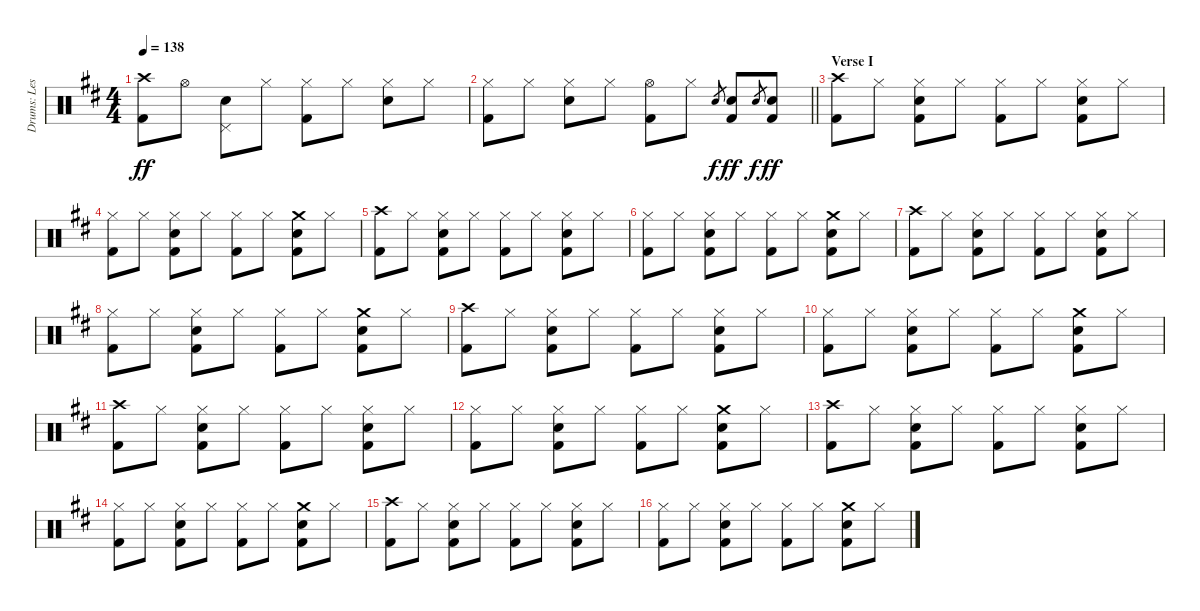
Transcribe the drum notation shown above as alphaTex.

\track ("Drums: Les" "Drums: Les") {instrument percussion}
\staff {score}
\articulation defaults
\ts (4 4)
\tempo 138
\clef neutral
\ks d
("Crash high (hit)" "Kick (hit) 2").8{dy ff} "Hi-Hat (open)".8 ("Pedal Hi-Hat (hit)" "Snare (hit) 2").8 "Hi-Hat (closed)".8 ("Hi-Hat (closed)" "Kick (hit) 2").8 "Hi-Hat (closed)".8 ("Hi-Hat (closed)" "Snare (hit) 2").8 "Hi-Hat (closed)".8 |
\barLineRight lightlight
("Hi-Hat (closed)" "Kick (hit) 2").8 "Hi-Hat (closed)".8 ("Hi-Hat (closed)" "Snare (hit) 2").8 "Hi-Hat (closed)".8 ("Hi-Hat (open)" "Kick (hit) 2").8 "Hi-Hat (closed)".8 "Snare (hit) 2".8{gr dy f} ("Snare (hit) 2" "Kick (hit) 2").8{dy ff} "Snare (hit) 2".8{gr dy f} ("Snare (hit) 2" "Kick (hit) 2").8{dy ff} |
\section ("" "Verse I")
("Crash high (hit)" "Kick (hit) 2").8 "Hi-Hat (closed)".8 ("Hi-Hat (closed)" "Snare (hit) 2" "Kick (hit) 2").8 "Hi-Hat (closed)".8 ("Hi-Hat (closed)" "Kick (hit) 2").8 "Hi-Hat (closed)".8 ("Hi-Hat (closed)" "Snare (hit) 2" "Kick (hit) 2").8 "Hi-Hat (closed)".8 |
("Hi-Hat (closed)" "Kick (hit) 2").8 "Hi-Hat (closed)".8 ("Hi-Hat (closed)" "Snare (hit) 2" "Kick (hit) 2").8 "Hi-Hat (closed)".8 ("Hi-Hat (closed)" "Kick (hit) 2").8 "Hi-Hat (closed)".8 ("Crash medium (hit)" "Snare (hit) 2" "Kick (hit) 2").8 "Hi-Hat (closed)".8 |
("Crash high (hit)" "Kick (hit) 2").8 "Hi-Hat (closed)".8 ("Hi-Hat (closed)" "Snare (hit) 2" "Kick (hit) 2").8 "Hi-Hat (closed)".8 ("Hi-Hat (closed)" "Kick (hit) 2").8 "Hi-Hat (closed)".8 ("Hi-Hat (closed)" "Snare (hit) 2" "Kick (hit) 2").8 "Hi-Hat (closed)".8 |
("Hi-Hat (closed)" "Kick (hit) 2").8 "Hi-Hat (closed)".8 ("Hi-Hat (closed)" "Snare (hit) 2" "Kick (hit) 2").8 "Hi-Hat (closed)".8 ("Hi-Hat (closed)" "Kick (hit) 2").8 "Hi-Hat (closed)".8 ("Crash medium (hit)" "Snare (hit) 2" "Kick (hit) 2").8 "Hi-Hat (closed)".8 |
("Crash high (hit)" "Kick (hit) 2").8 "Hi-Hat (closed)".8 ("Hi-Hat (closed)" "Snare (hit) 2" "Kick (hit) 2").8 "Hi-Hat (closed)".8 ("Hi-Hat (closed)" "Kick (hit) 2").8 "Hi-Hat (closed)".8 ("Hi-Hat (closed)" "Snare (hit) 2" "Kick (hit) 2").8 "Hi-Hat (closed)".8 |
("Hi-Hat (closed)" "Kick (hit) 2").8 "Hi-Hat (closed)".8 ("Hi-Hat (closed)" "Snare (hit) 2" "Kick (hit) 2").8 "Hi-Hat (closed)".8 ("Hi-Hat (closed)" "Kick (hit) 2").8 "Hi-Hat (closed)".8 ("Crash medium (hit)" "Snare (hit) 2" "Kick (hit) 2").8 "Hi-Hat (closed)".8 |
("Crash high (hit)" "Kick (hit) 2").8 "Hi-Hat (closed)".8 ("Hi-Hat (closed)" "Snare (hit) 2" "Kick (hit) 2").8 "Hi-Hat (closed)".8 ("Hi-Hat (closed)" "Kick (hit) 2").8 "Hi-Hat (closed)".8 ("Hi-Hat (closed)" "Snare (hit) 2" "Kick (hit) 2").8 "Hi-Hat (closed)".8 |
("Hi-Hat (closed)" "Kick (hit) 2").8 "Hi-Hat (closed)".8 ("Hi-Hat (closed)" "Snare (hit) 2" "Kick (hit) 2").8 "Hi-Hat (closed)".8 ("Hi-Hat (closed)" "Kick (hit) 2").8 "Hi-Hat (closed)".8 ("Crash medium (hit)" "Snare (hit) 2" "Kick (hit) 2").8 "Hi-Hat (closed)".8 |
("Crash high (hit)" "Kick (hit) 2").8 "Hi-Hat (closed)".8 ("Hi-Hat (closed)" "Snare (hit) 2" "Kick (hit) 2").8 "Hi-Hat (closed)".8 ("Hi-Hat (closed)" "Kick (hit) 2").8 "Hi-Hat (closed)".8 ("Hi-Hat (closed)" "Snare (hit) 2" "Kick (hit) 2").8 "Hi-Hat (closed)".8 |
("Hi-Hat (closed)" "Kick (hit) 2").8 "Hi-Hat (closed)".8 ("Hi-Hat (closed)" "Snare (hit) 2" "Kick (hit) 2").8 "Hi-Hat (closed)".8 ("Hi-Hat (closed)" "Kick (hit) 2").8 "Hi-Hat (closed)".8 ("Crash medium (hit)" "Snare (hit) 2" "Kick (hit) 2").8 "Hi-Hat (closed)".8 |
("Crash high (hit)" "Kick (hit) 2").8 "Hi-Hat (closed)".8 ("Hi-Hat (closed)" "Snare (hit) 2" "Kick (hit) 2").8 "Hi-Hat (closed)".8 ("Hi-Hat (closed)" "Kick (hit) 2").8 "Hi-Hat (closed)".8 ("Hi-Hat (closed)" "Snare (hit) 2" "Kick (hit) 2").8 "Hi-Hat (closed)".8 |
("Hi-Hat (closed)" "Kick (hit) 2").8 "Hi-Hat (closed)".8 ("Hi-Hat (closed)" "Snare (hit) 2" "Kick (hit) 2").8 "Hi-Hat (closed)".8 ("Hi-Hat (closed)" "Kick (hit) 2").8 "Hi-Hat (closed)".8 ("Crash medium (hit)" "Snare (hit) 2" "Kick (hit) 2").8 "Hi-Hat (closed)".8 |
("Crash high (hit)" "Kick (hit) 2").8 "Hi-Hat (closed)".8 ("Hi-Hat (closed)" "Snare (hit) 2" "Kick (hit) 2").8 "Hi-Hat (closed)".8 ("Hi-Hat (closed)" "Kick (hit) 2").8 "Hi-Hat (closed)".8 ("Hi-Hat (closed)" "Snare (hit) 2" "Kick (hit) 2").8 "Hi-Hat (closed)".8 |
("Hi-Hat (closed)" "Kick (hit) 2").8 "Hi-Hat (closed)".8 ("Hi-Hat (closed)" "Snare (hit) 2" "Kick (hit) 2").8 "Hi-Hat (closed)".8 ("Hi-Hat (closed)" "Kick (hit) 2").8 "Hi-Hat (closed)".8 ("Crash medium (hit)" "Snare (hit) 2" "Kick (hit) 2").8 "Hi-Hat (closed)".8
